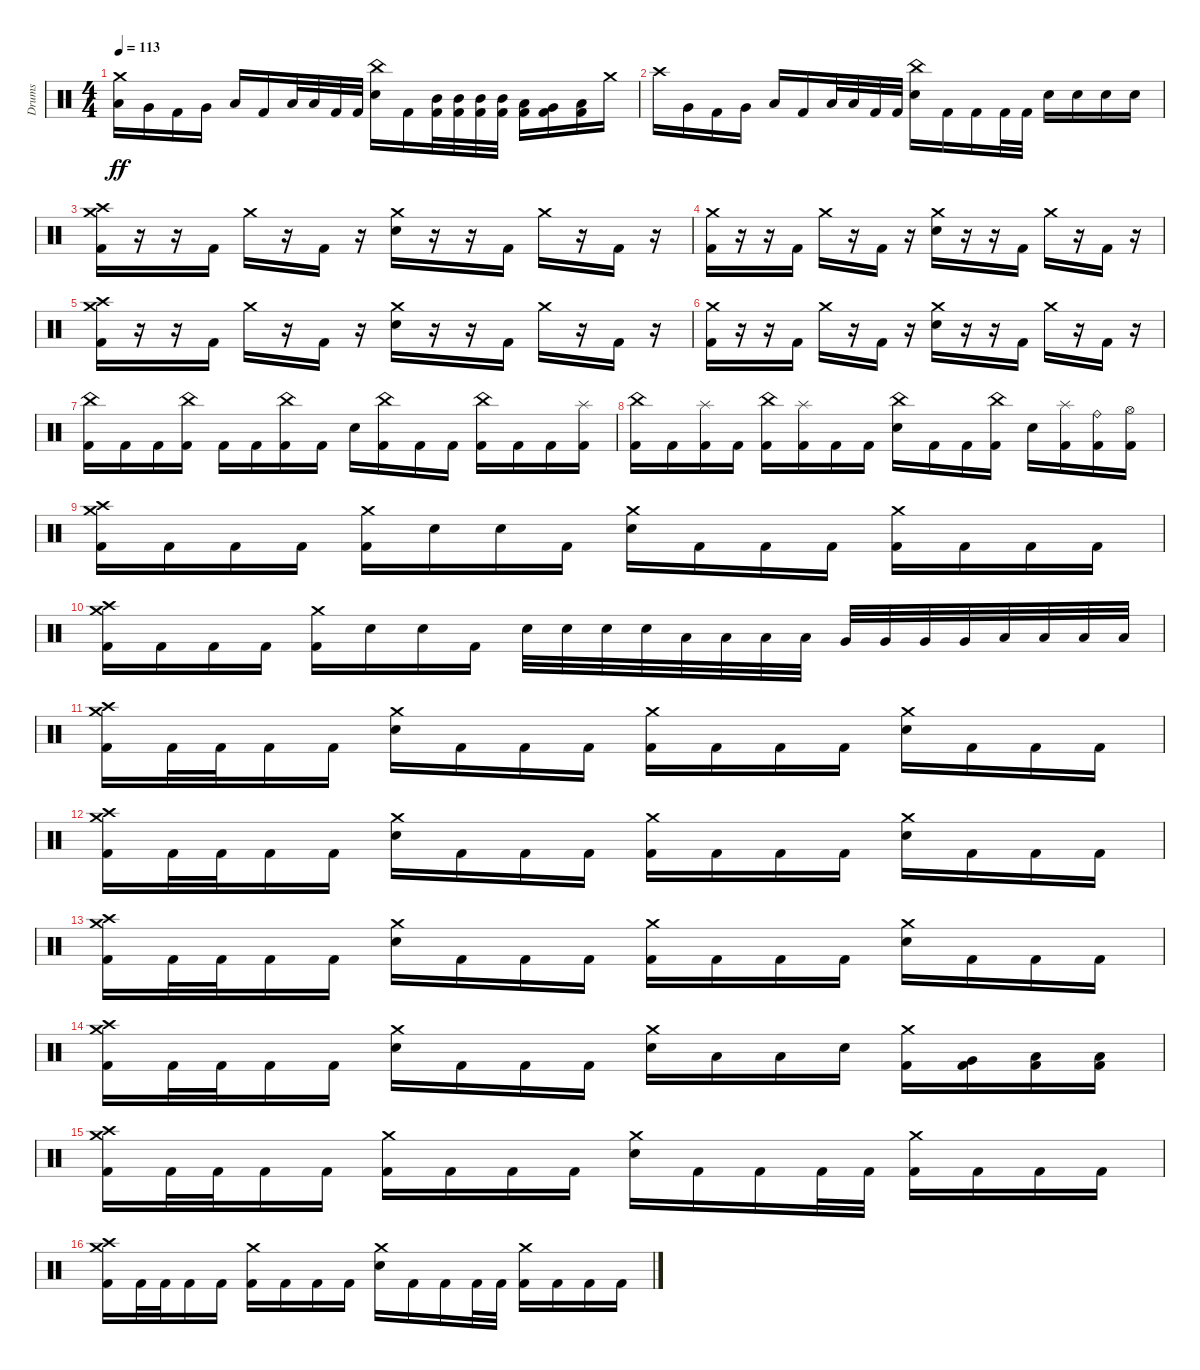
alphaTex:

\track ("Drums" "Drums") {instrument percussion}
\staff {score}
\articulation defaults
\ts (4 4)
\tempo 113
\clef neutral
\ks c
("Crash medium (hit)" "Low Tom (hit)").16{dy ff} "Very Low Tom (hit)".16 "Kick (hit) 2".16 "Very Low Tom (hit)".16 "Low Floor Tom (hit)".16 "Kick (hit) 2".16 "Low Floor Tom (hit)".32 "Low Floor Tom (hit)".32 "Kick (hit) 2".32 "Kick (hit) 2".32 ("China (hit)" "Snare (hit) 2").16 "Kick (hit) 2".16 ("Mid Tom (hit)" "Kick (hit) 2").32 ("Mid Tom (hit)" "Kick (hit) 2").32 ("Mid Tom (hit)" "Kick (hit) 2").32 ("Mid Tom (hit)" "Kick (hit) 2").32 ("Low Tom (hit)" "Kick (hit) 2").16 ("Very Low Tom (hit)" "Kick (hit) 2").16 ("Low Floor Tom (hit)" "Kick (hit) 2").16 "Crash medium (hit)".16 |
"Crash high (hit)".16 "Very Low Tom (hit)".16 "Kick (hit) 2".16 "Very Low Tom (hit)".16 "Low Floor Tom (hit)".16 "Kick (hit) 2".16 "Low Floor Tom (hit)".32 "Low Floor Tom (hit)".32 "Kick (hit) 2".32 "Kick (hit) 2".32 ("China (hit)" "Snare (hit) 2").16 "Kick (hit) 2".16 "Kick (hit) 2".16 "Kick (hit) 2".32 "Kick (hit) 2".32 "Snare (hit) 2".16 "Snare (hit) 2".16 "Snare (hit) 2".16 "Snare (hit) 2".16 |
("Crash medium (hit)" "Crash high (hit)" "Kick (hit) 2").16 r.16 r.16 "Kick (hit) 2".16 "Crash medium (hit)".16 r.16 "Kick (hit) 2".16 r.16 ("Crash medium (hit)" "Snare (hit) 2").16 r.16 r.16 "Kick (hit) 2".16 "Crash medium (hit)".16 r.16 "Kick (hit) 2".16 r.16 |
("Crash medium (hit)" "Kick (hit) 2").16 r.16 r.16 "Kick (hit) 2".16 "Crash medium (hit)".16 r.16 "Kick (hit) 2".16 r.16 ("Crash medium (hit)" "Snare (hit) 2").16 r.16 r.16 "Kick (hit) 2".16 "Crash medium (hit)".16 r.16 "Kick (hit) 2".16 r.16 |
("Crash medium (hit)" "Crash high (hit)" "Kick (hit) 2").16 r.16 r.16 "Kick (hit) 2".16 "Crash medium (hit)".16 r.16 "Kick (hit) 2".16 r.16 ("Crash medium (hit)" "Snare (hit) 2").16 r.16 r.16 "Kick (hit) 2".16 "Crash medium (hit)".16 r.16 "Kick (hit) 2".16 r.16 |
("Crash medium (hit)" "Kick (hit) 2").16 r.16 r.16 "Kick (hit) 2".16 "Crash medium (hit)".16 r.16 "Kick (hit) 2".16 r.16 ("Crash medium (hit)" "Snare (hit) 2").16 r.16 r.16 "Kick (hit) 2".16 "Crash medium (hit)".16 r.16 "Kick (hit) 2".16 r.16 |
("China (hit)" "Kick (hit) 2").16 "Kick (hit) 2".16 "Kick (hit) 2".16 ("China (hit)" "Kick (hit) 2").16 "Kick (hit) 2".16 "Kick (hit) 2".16 ("China (hit)" "Kick (hit) 2").16 "Kick (hit) 2".16 "Snare (hit) 2".16 ("China (hit)" "Kick (hit) 2").16 "Kick (hit) 2".16 "Kick (hit) 2".16 ("China (hit)" "Kick (hit) 2").16 "Kick (hit) 2".16 "Kick (hit) 2".16 ("Splash (hit)" "Kick (hit) 2").16 |
("China (hit)" "Kick (hit) 2").16 "Kick (hit) 2".16 ("Splash (hit)" "Kick (hit) 2").16 "Kick (hit) 2".16 ("China (hit)" "Kick (hit) 2").16 ("Splash (hit)" "Kick (hit) 2").16 "Kick (hit) 2".16 "Kick (hit) 2".16 ("China (hit)" "Snare (hit) 2").16 "Kick (hit) 2".16 "Kick (hit) 2".16 ("China (hit)" "Kick (hit) 2").16 "Snare (hit) 2".16 ("Splash (hit)" "Kick (hit) 2").16 ("Ride (bell)" "Kick (hit) 2").16 ("Hi-Hat (open)" "Kick (hit) 2").16 |
("Crash medium (hit)" "Crash high (hit)" "Kick (hit) 2").16 "Kick (hit) 2".16 "Kick (hit) 2".16 "Kick (hit) 2".16 ("Crash medium (hit)" "Kick (hit) 2").16 "Snare (hit) 2".16 "Snare (hit) 2".16 "Kick (hit) 2".16 ("Crash medium (hit)" "Snare (hit) 2").16 "Kick (hit) 2".16 "Kick (hit) 2".16 "Kick (hit) 2".16 ("Crash medium (hit)" "Kick (hit) 2").16 "Kick (hit) 2".16 "Kick (hit) 2".16 "Kick (hit) 2".16 |
("Crash medium (hit)" "Crash high (hit)" "Kick (hit) 2").16 "Kick (hit) 2".16 "Kick (hit) 2".16 "Kick (hit) 2".16 ("Crash medium (hit)" "Kick (hit) 2").16 "Snare (hit) 2".16 "Snare (hit) 2".16 "Kick (hit) 2".16 "Snare (hit) 2".32 "Snare (hit) 2".32 "Snare (hit) 2".32 "Snare (hit) 2".32 "Low Tom (hit)".32 "Low Tom (hit)".32 "Low Tom (hit)".32 "Low Tom (hit)".32 "Very Low Tom (hit)".32 "Very Low Tom (hit)".32 "Very Low Tom (hit)".32 "Very Low Tom (hit)".32 "Low Floor Tom (hit)".32 "Low Floor Tom (hit)".32 "Low Floor Tom (hit)".32 "Low Floor Tom (hit)".32 |
("Crash medium (hit)" "Crash high (hit)" "Kick (hit) 2").16 "Kick (hit) 2".32 "Kick (hit) 2".32 "Kick (hit) 2".16 "Kick (hit) 2".16 ("Crash medium (hit)" "Snare (hit) 2").16 "Kick (hit) 2".16 "Kick (hit) 2".16 "Kick (hit) 2".16 ("Crash medium (hit)" "Kick (hit) 2").16 "Kick (hit) 2".16 "Kick (hit) 2".16 "Kick (hit) 2".16 ("Crash medium (hit)" "Snare (hit) 2").16 "Kick (hit) 2".16 "Kick (hit) 2".16 "Kick (hit) 2".16 |
("Crash medium (hit)" "Crash high (hit)" "Kick (hit) 2").16 "Kick (hit) 2".32 "Kick (hit) 2".32 "Kick (hit) 2".16 "Kick (hit) 2".16 ("Crash medium (hit)" "Snare (hit) 2").16 "Kick (hit) 2".16 "Kick (hit) 2".16 "Kick (hit) 2".16 ("Crash medium (hit)" "Kick (hit) 2").16 "Kick (hit) 2".16 "Kick (hit) 2".16 "Kick (hit) 2".16 ("Crash medium (hit)" "Snare (hit) 2").16 "Kick (hit) 2".16 "Kick (hit) 2".16 "Kick (hit) 2".16 |
("Crash medium (hit)" "Crash high (hit)" "Kick (hit) 2").16 "Kick (hit) 2".32 "Kick (hit) 2".32 "Kick (hit) 2".16 "Kick (hit) 2".16 ("Crash medium (hit)" "Snare (hit) 2").16 "Kick (hit) 2".16 "Kick (hit) 2".16 "Kick (hit) 2".16 ("Crash medium (hit)" "Kick (hit) 2").16 "Kick (hit) 2".16 "Kick (hit) 2".16 "Kick (hit) 2".16 ("Crash medium (hit)" "Snare (hit) 2").16 "Kick (hit) 2".16 "Kick (hit) 2".16 "Kick (hit) 2".16 |
("Crash medium (hit)" "Crash high (hit)" "Kick (hit) 2").16 "Kick (hit) 2".32 "Kick (hit) 2".32 "Kick (hit) 2".16 "Kick (hit) 2".16 ("Crash medium (hit)" "Snare (hit) 2").16 "Kick (hit) 2".16 "Kick (hit) 2".16 "Kick (hit) 2".16 ("Crash medium (hit)" "Snare (hit) 2").16 "Low Tom (hit)".16 "Low Floor Tom (hit)".16 "Snare (hit) 2".16 ("Crash medium (hit)" "Kick (hit) 2").16 ("Very Low Tom (hit)" "Kick (hit) 2").16 ("Low Floor Tom (hit)" "Kick (hit) 2").16 ("Low Floor Tom (hit)" "Kick (hit) 2").16 |
("Crash medium (hit)" "Crash high (hit)" "Kick (hit) 2").16 "Kick (hit) 2".32 "Kick (hit) 2".32 "Kick (hit) 2".16 "Kick (hit) 2".16 ("Crash medium (hit)" "Kick (hit) 2").16 "Kick (hit) 2".16 "Kick (hit) 2".16 "Kick (hit) 2".16 ("Crash medium (hit)" "Snare (hit) 2").16 "Kick (hit) 2".16 "Kick (hit) 2".16 "Kick (hit) 2".32 "Kick (hit) 2".32 ("Crash medium (hit)" "Kick (hit) 2").16 "Kick (hit) 2".16 "Kick (hit) 2".16 "Kick (hit) 2".16 |
("Crash medium (hit)" "Crash high (hit)" "Kick (hit) 2").16 "Kick (hit) 2".32 "Kick (hit) 2".32 "Kick (hit) 2".16 "Kick (hit) 2".16 ("Crash medium (hit)" "Kick (hit) 2").16 "Kick (hit) 2".16 "Kick (hit) 2".16 "Kick (hit) 2".16 ("Crash medium (hit)" "Snare (hit) 2").16 "Kick (hit) 2".16 "Kick (hit) 2".16 "Kick (hit) 2".32 "Kick (hit) 2".32 ("Crash medium (hit)" "Kick (hit) 2").16 "Kick (hit) 2".16 "Kick (hit) 2".16 "Kick (hit) 2".16
